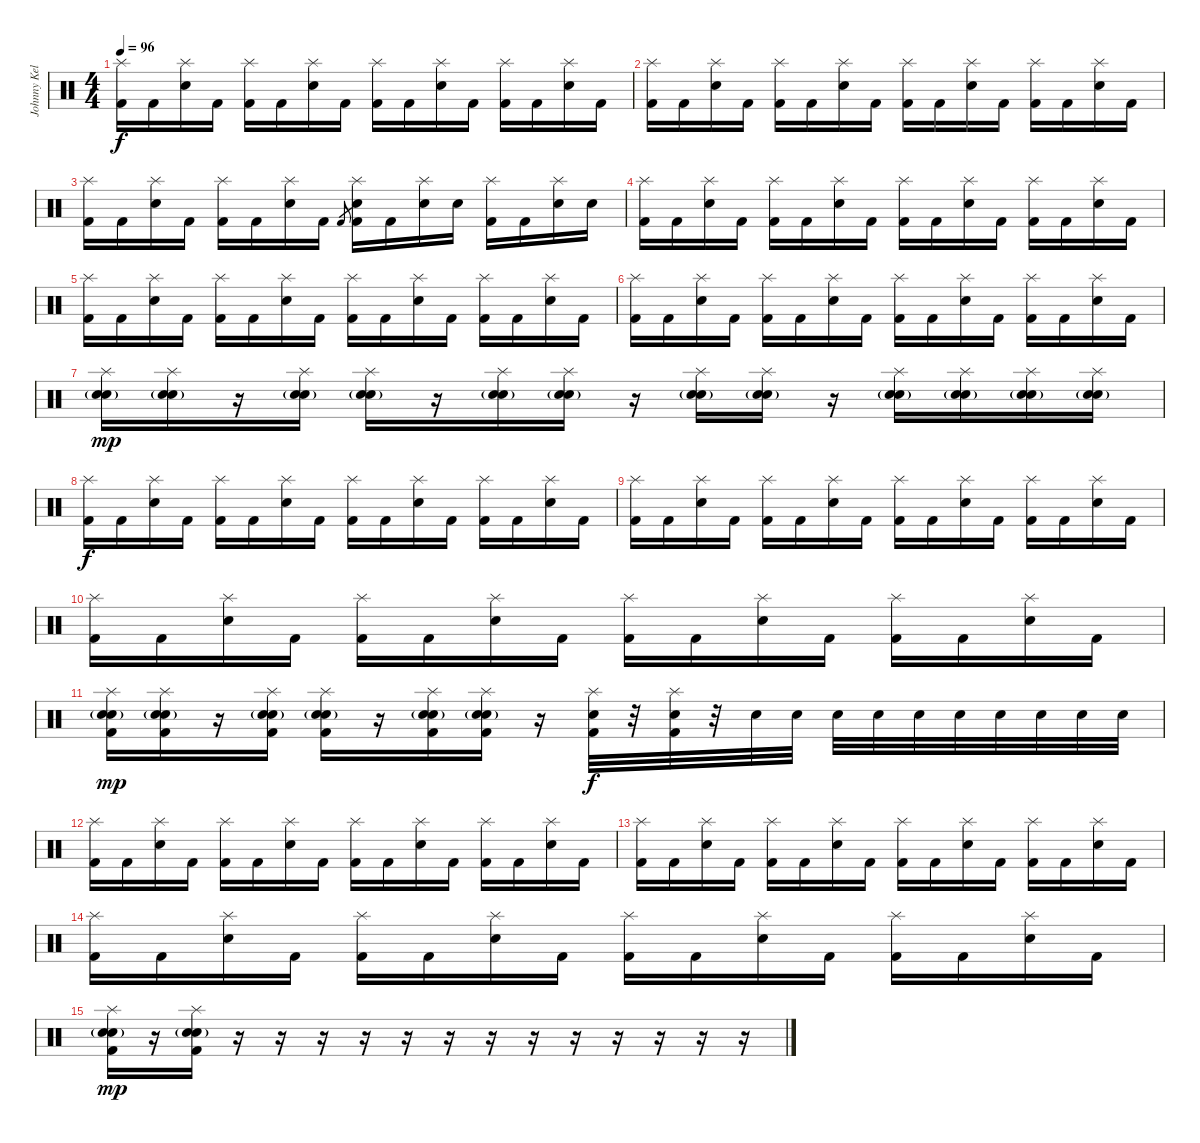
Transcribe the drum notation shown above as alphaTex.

\track ("Johnny Kelly - Drums" "Johnny Kel") {instrument percussion}
\staff {score}
\articulation defaults
\ts (4 4)
\tempo 96
\clef neutral
\ks c
("Splash (hit)" "Kick (hit) 2").16{dy f} "Kick (hit) 2".16 ("Splash (hit)" "Electric Snare (hit)").16 "Kick (hit) 2".16 ("Splash (hit)" "Kick (hit) 2").16 "Kick (hit) 2".16 ("Splash (hit)" "Electric Snare (hit)").16 "Kick (hit) 2".16 ("Splash (hit)" "Kick (hit) 2").16 "Kick (hit) 2".16 ("Splash (hit)" "Electric Snare (hit)").16 "Kick (hit) 2".16 ("Splash (hit)" "Kick (hit) 2").16 "Kick (hit) 2".16 ("Splash (hit)" "Electric Snare (hit)").16 "Kick (hit) 2".16 |
("Splash (hit)" "Kick (hit) 2").16 "Kick (hit) 2".16 ("Splash (hit)" "Electric Snare (hit)").16 "Kick (hit) 2".16 ("Splash (hit)" "Kick (hit) 2").16 "Kick (hit) 2".16 ("Splash (hit)" "Electric Snare (hit)").16 "Kick (hit) 2".16 ("Splash (hit)" "Kick (hit) 2").16 "Kick (hit) 2".16 ("Splash (hit)" "Electric Snare (hit)").16 "Kick (hit) 2".16 ("Splash (hit)" "Kick (hit) 2").16 "Kick (hit) 2".16 ("Splash (hit)" "Electric Snare (hit)").16 "Kick (hit) 2".16 |
("Splash (hit)" "Kick (hit) 2").16 "Kick (hit) 2".16 ("Splash (hit)" "Electric Snare (hit)").16 "Kick (hit) 2".16 ("Splash (hit)" "Kick (hit) 2").16 "Kick (hit) 2".16 ("Splash (hit)" "Electric Snare (hit)").16 "Kick (hit) 2".16 "Kick (hit) 2".8{gr} ("Splash (hit)" "Electric Snare (hit)" "Kick (hit) 2").16 "Kick (hit) 2".16 ("Splash (hit)" "Electric Snare (hit)").16 "Electric Snare (hit)".16 ("Splash (hit)" "Kick (hit) 2").16 "Kick (hit) 2".16 ("Splash (hit)" "Electric Snare (hit)").16 "Electric Snare (hit)".16 |
("Splash (hit)" "Kick (hit) 2").16 "Kick (hit) 2".16 ("Splash (hit)" "Electric Snare (hit)").16 "Kick (hit) 2".16 ("Splash (hit)" "Kick (hit) 2").16 "Kick (hit) 2".16 ("Splash (hit)" "Electric Snare (hit)").16 "Kick (hit) 2".16 ("Splash (hit)" "Kick (hit) 2").16 "Kick (hit) 2".16 ("Splash (hit)" "Electric Snare (hit)").16 "Kick (hit) 2".16 ("Splash (hit)" "Kick (hit) 2").16 "Kick (hit) 2".16 ("Splash (hit)" "Electric Snare (hit)").16 "Kick (hit) 2".16 |
("Splash (hit)" "Kick (hit) 2").16 "Kick (hit) 2".16 ("Splash (hit)" "Electric Snare (hit)").16 "Kick (hit) 2".16 ("Splash (hit)" "Kick (hit) 2").16 "Kick (hit) 2".16 ("Splash (hit)" "Electric Snare (hit)").16 "Kick (hit) 2".16 ("Splash (hit)" "Kick (hit) 2").16 "Kick (hit) 2".16 ("Splash (hit)" "Electric Snare (hit)").16 "Kick (hit) 2".16 ("Splash (hit)" "Kick (hit) 2").16 "Kick (hit) 2".16 ("Splash (hit)" "Electric Snare (hit)").16 "Kick (hit) 2".16 |
("Splash (hit)" "Kick (hit) 2").16 "Kick (hit) 2".16 ("Splash (hit)" "Electric Snare (hit)").16 "Kick (hit) 2".16 ("Splash (hit)" "Kick (hit) 2").16 "Kick (hit) 2".16 ("Splash (hit)" "Electric Snare (hit)").16 "Kick (hit) 2".16 ("Splash (hit)" "Kick (hit) 2").16 "Kick (hit) 2".16 ("Splash (hit)" "Electric Snare (hit)").16 "Kick (hit) 2".16 ("Splash (hit)" "Kick (hit) 2").16 "Kick (hit) 2".16 ("Splash (hit)" "Electric Snare (hit)").16 "Kick (hit) 2".16 |
("Splash (hit)" "Snare (hit) 2"{g} "Electric Snare (hit)").16{dy mp} ("Splash (hit)" "Snare (hit) 2"{g} "Electric Snare (hit)").16 r.16 ("Splash (hit)" "Snare (hit) 2"{g} "Electric Snare (hit)").16 ("Splash (hit)" "Snare (hit) 2"{g} "Electric Snare (hit)").16 r.16 ("Splash (hit)" "Snare (hit) 2"{g} "Electric Snare (hit)").16 ("Splash (hit)" "Snare (hit) 2"{g} "Electric Snare (hit)").16 r.16 ("Splash (hit)" "Snare (hit) 2"{g} "Electric Snare (hit)").16 ("Splash (hit)" "Snare (hit) 2"{g} "Electric Snare (hit)").16 r.16 ("Splash (hit)" "Snare (hit) 2"{g} "Electric Snare (hit)").16 ("Splash (hit)" "Snare (hit) 2"{g} "Electric Snare (hit)").16 ("Splash (hit)" "Snare (hit) 2"{g} "Electric Snare (hit)").16 ("Splash (hit)" "Snare (hit) 2"{g} "Electric Snare (hit)").16 |
("Splash (hit)" "Kick (hit) 2").16{dy f} "Kick (hit) 2".16 ("Splash (hit)" "Electric Snare (hit)").16 "Kick (hit) 2".16 ("Splash (hit)" "Kick (hit) 2").16 "Kick (hit) 2".16 ("Splash (hit)" "Electric Snare (hit)").16 "Kick (hit) 2".16 ("Splash (hit)" "Kick (hit) 2").16 "Kick (hit) 2".16 ("Splash (hit)" "Electric Snare (hit)").16 "Kick (hit) 2".16 ("Splash (hit)" "Kick (hit) 2").16 "Kick (hit) 2".16 ("Splash (hit)" "Electric Snare (hit)").16 "Kick (hit) 2".16 |
("Splash (hit)" "Kick (hit) 2").16 "Kick (hit) 2".16 ("Splash (hit)" "Electric Snare (hit)").16 "Kick (hit) 2".16 ("Splash (hit)" "Kick (hit) 2").16 "Kick (hit) 2".16 ("Splash (hit)" "Electric Snare (hit)").16 "Kick (hit) 2".16 ("Splash (hit)" "Kick (hit) 2").16 "Kick (hit) 2".16 ("Splash (hit)" "Electric Snare (hit)").16 "Kick (hit) 2".16 ("Splash (hit)" "Kick (hit) 2").16 "Kick (hit) 2".16 ("Splash (hit)" "Electric Snare (hit)").16 "Kick (hit) 2".16 |
("Splash (hit)" "Kick (hit) 2").16 "Kick (hit) 2".16 ("Splash (hit)" "Electric Snare (hit)").16 "Kick (hit) 2".16 ("Splash (hit)" "Kick (hit) 2").16 "Kick (hit) 2".16 ("Splash (hit)" "Electric Snare (hit)").16 "Kick (hit) 2".16 ("Splash (hit)" "Kick (hit) 2").16 "Kick (hit) 2".16 ("Splash (hit)" "Electric Snare (hit)").16 "Kick (hit) 2".16 ("Splash (hit)" "Kick (hit) 2").16 "Kick (hit) 2".16 ("Splash (hit)" "Electric Snare (hit)").16 "Kick (hit) 2".16 |
("Splash (hit)" "Snare (hit) 2"{g} "Electric Snare (hit)" "Kick (hit) 2").16{dy mp} ("Splash (hit)" "Snare (hit) 2"{g} "Electric Snare (hit)" "Kick (hit) 2").16 r.16 ("Splash (hit)" "Snare (hit) 2"{g} "Electric Snare (hit)" "Kick (hit) 2").16 ("Splash (hit)" "Snare (hit) 2"{g} "Electric Snare (hit)" "Kick (hit) 2").16 r.16 ("Splash (hit)" "Snare (hit) 2"{g} "Electric Snare (hit)" "Kick (hit) 2").16 ("Splash (hit)" "Snare (hit) 2"{g} "Electric Snare (hit)" "Kick (hit) 2").16 r.16 ("Splash (hit)" "Electric Snare (hit)" "Kick (hit) 2").32{dy f} r.32 ("Splash (hit)" "Electric Snare (hit)" "Kick (hit) 2").32 r.32 "Electric Snare (hit)".32 "Electric Snare (hit)".32 "Electric Snare (hit)".32 "Electric Snare (hit)".32 "Electric Snare (hit)".32 "Electric Snare (hit)".32 "Electric Snare (hit)".32 "Electric Snare (hit)".32 "Electric Snare (hit)".32 "Electric Snare (hit)".32 |
("Splash (hit)" "Kick (hit) 2").16 "Kick (hit) 2".16 ("Splash (hit)" "Electric Snare (hit)").16 "Kick (hit) 2".16 ("Splash (hit)" "Kick (hit) 2").16 "Kick (hit) 2".16 ("Splash (hit)" "Electric Snare (hit)").16 "Kick (hit) 2".16 ("Splash (hit)" "Kick (hit) 2").16 "Kick (hit) 2".16 ("Splash (hit)" "Electric Snare (hit)").16 "Kick (hit) 2".16 ("Splash (hit)" "Kick (hit) 2").16 "Kick (hit) 2".16 ("Splash (hit)" "Electric Snare (hit)").16 "Kick (hit) 2".16 |
("Splash (hit)" "Kick (hit) 2").16 "Kick (hit) 2".16 ("Splash (hit)" "Electric Snare (hit)").16 "Kick (hit) 2".16 ("Splash (hit)" "Kick (hit) 2").16 "Kick (hit) 2".16 ("Splash (hit)" "Electric Snare (hit)").16 "Kick (hit) 2".16 ("Splash (hit)" "Kick (hit) 2").16 "Kick (hit) 2".16 ("Splash (hit)" "Electric Snare (hit)").16 "Kick (hit) 2".16 ("Splash (hit)" "Kick (hit) 2").16 "Kick (hit) 2".16 ("Splash (hit)" "Electric Snare (hit)").16 "Kick (hit) 2".16 |
("Splash (hit)" "Kick (hit) 2").16 "Kick (hit) 2".16 ("Splash (hit)" "Electric Snare (hit)").16 "Kick (hit) 2".16 ("Splash (hit)" "Kick (hit) 2").16 "Kick (hit) 2".16 ("Splash (hit)" "Electric Snare (hit)").16 "Kick (hit) 2".16 ("Splash (hit)" "Kick (hit) 2").16 "Kick (hit) 2".16 ("Splash (hit)" "Electric Snare (hit)").16 "Kick (hit) 2".16 ("Splash (hit)" "Kick (hit) 2").16 "Kick (hit) 2".16 ("Splash (hit)" "Electric Snare (hit)").16 "Kick (hit) 2".16 |
("Splash (hit)" "Snare (hit) 2"{g} "Electric Snare (hit)" "Kick (hit) 2").16{dy mp} r.16 ("Splash (hit)" "Snare (hit) 2"{g} "Electric Snare (hit)" "Kick (hit) 2").16 r.16 r.16 r.16 r.16 r.16 r.16 r.16 r.16 r.16 r.16 r.16 r.16 r.16
